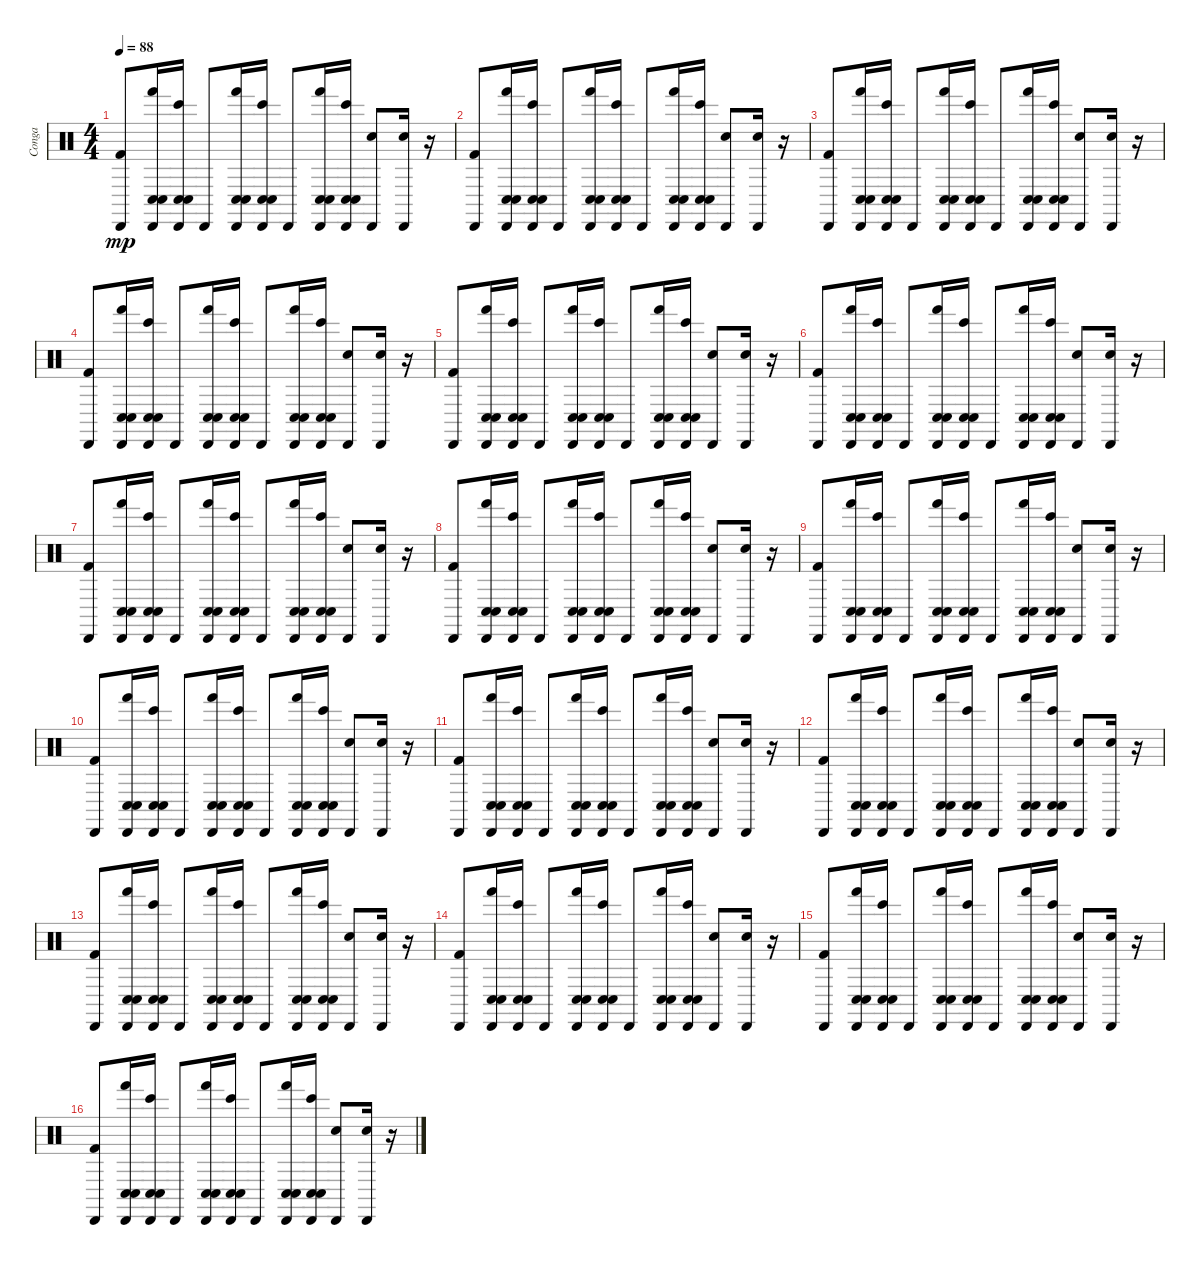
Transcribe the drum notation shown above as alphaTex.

\track ("Conga" "Conga") {instrument percussion}
\staff {score}
\articulation defaults
\ts (4 4)
\tempo 88
\clef neutral
\ks c
("Cabasa (hit)" "Kick (hit) 2").8{dy mp} ("Cabasa (hit)" "Conga low (hit)" "Conga low (hit)" "Hand (hit)").16 ("Cabasa (hit)" "Conga low (hit)" "Conga low (hit)" "Bongo High (hit)").16 "Cabasa (hit)".8 ("Cabasa (hit)" "Conga low (hit)" "Conga low (hit)" "Hand (hit)").16 ("Cabasa (hit)" "Conga low (hit)" "Conga low (hit)" "Bongo High (hit)").16 "Cabasa (hit)".8 ("Cabasa (hit)" "Conga low (hit)" "Conga low (hit)" "Hand (hit)").16 ("Cabasa (hit)" "Conga low (hit)" "Conga low (hit)" "Bongo High (hit)").16 ("Cabasa (hit)" "Electric Snare (hit)").8 ("Cabasa (hit)" "Electric Snare (hit)").16 r.16 |
("Cabasa (hit)" "Kick (hit) 2").8 ("Cabasa (hit)" "Conga low (hit)" "Conga low (hit)" "Hand (hit)").16 ("Cabasa (hit)" "Conga low (hit)" "Conga low (hit)" "Bongo High (hit)").16 "Cabasa (hit)".8 ("Cabasa (hit)" "Conga low (hit)" "Conga low (hit)" "Hand (hit)").16 ("Cabasa (hit)" "Conga low (hit)" "Conga low (hit)" "Bongo High (hit)").16 "Cabasa (hit)".8 ("Cabasa (hit)" "Conga low (hit)" "Conga low (hit)" "Hand (hit)").16 ("Cabasa (hit)" "Conga low (hit)" "Conga low (hit)" "Bongo High (hit)").16 ("Cabasa (hit)" "Electric Snare (hit)").8 ("Cabasa (hit)" "Electric Snare (hit)").16 r.16 |
("Cabasa (hit)" "Kick (hit) 2").8 ("Cabasa (hit)" "Conga low (hit)" "Conga low (hit)" "Hand (hit)").16 ("Cabasa (hit)" "Conga low (hit)" "Conga low (hit)" "Bongo High (hit)").16 "Cabasa (hit)".8 ("Cabasa (hit)" "Conga low (hit)" "Conga low (hit)" "Hand (hit)").16 ("Cabasa (hit)" "Conga low (hit)" "Conga low (hit)" "Bongo High (hit)").16 "Cabasa (hit)".8 ("Cabasa (hit)" "Conga low (hit)" "Conga low (hit)" "Hand (hit)").16 ("Cabasa (hit)" "Conga low (hit)" "Conga low (hit)" "Bongo High (hit)").16 ("Cabasa (hit)" "Electric Snare (hit)").8 ("Cabasa (hit)" "Electric Snare (hit)").16 r.16 |
("Cabasa (hit)" "Kick (hit) 2").8 ("Cabasa (hit)" "Conga low (hit)" "Conga low (hit)" "Hand (hit)").16 ("Cabasa (hit)" "Conga low (hit)" "Conga low (hit)" "Bongo High (hit)").16 "Cabasa (hit)".8 ("Cabasa (hit)" "Conga low (hit)" "Conga low (hit)" "Hand (hit)").16 ("Cabasa (hit)" "Conga low (hit)" "Conga low (hit)" "Bongo High (hit)").16 "Cabasa (hit)".8 ("Cabasa (hit)" "Conga low (hit)" "Conga low (hit)" "Hand (hit)").16 ("Cabasa (hit)" "Conga low (hit)" "Conga low (hit)" "Bongo High (hit)").16 ("Cabasa (hit)" "Electric Snare (hit)").8 ("Cabasa (hit)" "Electric Snare (hit)").16 r.16 |
("Cabasa (hit)" "Kick (hit) 2").8 ("Cabasa (hit)" "Conga low (hit)" "Conga low (hit)" "Hand (hit)").16 ("Cabasa (hit)" "Conga low (hit)" "Conga low (hit)" "Bongo High (hit)").16 "Cabasa (hit)".8 ("Cabasa (hit)" "Conga low (hit)" "Conga low (hit)" "Hand (hit)").16 ("Cabasa (hit)" "Conga low (hit)" "Conga low (hit)" "Bongo High (hit)").16 "Cabasa (hit)".8 ("Cabasa (hit)" "Conga low (hit)" "Conga low (hit)" "Hand (hit)").16 ("Cabasa (hit)" "Conga low (hit)" "Conga low (hit)" "Bongo High (hit)").16 ("Cabasa (hit)" "Electric Snare (hit)").8 ("Cabasa (hit)" "Electric Snare (hit)").16 r.16 |
("Cabasa (hit)" "Kick (hit) 2").8 ("Cabasa (hit)" "Conga low (hit)" "Conga low (hit)" "Hand (hit)").16 ("Cabasa (hit)" "Conga low (hit)" "Conga low (hit)" "Bongo High (hit)").16 "Cabasa (hit)".8 ("Cabasa (hit)" "Conga low (hit)" "Conga low (hit)" "Hand (hit)").16 ("Cabasa (hit)" "Conga low (hit)" "Conga low (hit)" "Bongo High (hit)").16 "Cabasa (hit)".8 ("Cabasa (hit)" "Conga low (hit)" "Conga low (hit)" "Hand (hit)").16 ("Cabasa (hit)" "Conga low (hit)" "Conga low (hit)" "Bongo High (hit)").16 ("Cabasa (hit)" "Electric Snare (hit)").8 ("Cabasa (hit)" "Electric Snare (hit)").16 r.16 |
("Cabasa (hit)" "Kick (hit) 2").8 ("Cabasa (hit)" "Conga low (hit)" "Conga low (hit)" "Hand (hit)").16 ("Cabasa (hit)" "Conga low (hit)" "Conga low (hit)" "Bongo High (hit)").16 "Cabasa (hit)".8 ("Cabasa (hit)" "Conga low (hit)" "Conga low (hit)" "Hand (hit)").16 ("Cabasa (hit)" "Conga low (hit)" "Conga low (hit)" "Bongo High (hit)").16 "Cabasa (hit)".8 ("Cabasa (hit)" "Conga low (hit)" "Conga low (hit)" "Hand (hit)").16 ("Cabasa (hit)" "Conga low (hit)" "Conga low (hit)" "Bongo High (hit)").16 ("Cabasa (hit)" "Electric Snare (hit)").8 ("Cabasa (hit)" "Electric Snare (hit)").16 r.16 |
("Cabasa (hit)" "Kick (hit) 2").8 ("Cabasa (hit)" "Conga low (hit)" "Conga low (hit)" "Hand (hit)").16 ("Cabasa (hit)" "Conga low (hit)" "Conga low (hit)" "Bongo High (hit)").16 "Cabasa (hit)".8 ("Cabasa (hit)" "Conga low (hit)" "Conga low (hit)" "Hand (hit)").16 ("Cabasa (hit)" "Conga low (hit)" "Conga low (hit)" "Bongo High (hit)").16 "Cabasa (hit)".8 ("Cabasa (hit)" "Conga low (hit)" "Conga low (hit)" "Hand (hit)").16 ("Cabasa (hit)" "Conga low (hit)" "Conga low (hit)" "Bongo High (hit)").16 ("Cabasa (hit)" "Electric Snare (hit)").8 ("Cabasa (hit)" "Electric Snare (hit)").16 r.16 |
("Cabasa (hit)" "Kick (hit) 2").8 ("Cabasa (hit)" "Conga low (hit)" "Conga low (hit)" "Hand (hit)").16 ("Cabasa (hit)" "Conga low (hit)" "Conga low (hit)" "Bongo High (hit)").16 "Cabasa (hit)".8 ("Cabasa (hit)" "Conga low (hit)" "Conga low (hit)" "Hand (hit)").16 ("Cabasa (hit)" "Conga low (hit)" "Conga low (hit)" "Bongo High (hit)").16 "Cabasa (hit)".8 ("Cabasa (hit)" "Conga low (hit)" "Conga low (hit)" "Hand (hit)").16 ("Cabasa (hit)" "Conga low (hit)" "Conga low (hit)" "Bongo High (hit)").16 ("Cabasa (hit)" "Electric Snare (hit)").8 ("Cabasa (hit)" "Electric Snare (hit)").16 r.16 |
("Cabasa (hit)" "Kick (hit) 2").8 ("Cabasa (hit)" "Conga low (hit)" "Conga low (hit)" "Hand (hit)").16 ("Cabasa (hit)" "Conga low (hit)" "Conga low (hit)" "Bongo High (hit)").16 "Cabasa (hit)".8 ("Cabasa (hit)" "Conga low (hit)" "Conga low (hit)" "Hand (hit)").16 ("Cabasa (hit)" "Conga low (hit)" "Conga low (hit)" "Bongo High (hit)").16 "Cabasa (hit)".8 ("Cabasa (hit)" "Conga low (hit)" "Conga low (hit)" "Hand (hit)").16 ("Cabasa (hit)" "Conga low (hit)" "Conga low (hit)" "Bongo High (hit)").16 ("Cabasa (hit)" "Electric Snare (hit)").8 ("Cabasa (hit)" "Electric Snare (hit)").16 r.16 |
("Cabasa (hit)" "Kick (hit) 2").8 ("Cabasa (hit)" "Conga low (hit)" "Conga low (hit)" "Hand (hit)").16 ("Cabasa (hit)" "Conga low (hit)" "Conga low (hit)" "Bongo High (hit)").16 "Cabasa (hit)".8 ("Cabasa (hit)" "Conga low (hit)" "Conga low (hit)" "Hand (hit)").16 ("Cabasa (hit)" "Conga low (hit)" "Conga low (hit)" "Bongo High (hit)").16 "Cabasa (hit)".8 ("Cabasa (hit)" "Conga low (hit)" "Conga low (hit)" "Hand (hit)").16 ("Cabasa (hit)" "Conga low (hit)" "Conga low (hit)" "Bongo High (hit)").16 ("Cabasa (hit)" "Electric Snare (hit)").8 ("Cabasa (hit)" "Electric Snare (hit)").16 r.16 |
("Cabasa (hit)" "Kick (hit) 2").8 ("Cabasa (hit)" "Conga low (hit)" "Conga low (hit)" "Hand (hit)").16 ("Cabasa (hit)" "Conga low (hit)" "Conga low (hit)" "Bongo High (hit)").16 "Cabasa (hit)".8 ("Cabasa (hit)" "Conga low (hit)" "Conga low (hit)" "Hand (hit)").16 ("Cabasa (hit)" "Conga low (hit)" "Conga low (hit)" "Bongo High (hit)").16 "Cabasa (hit)".8 ("Cabasa (hit)" "Conga low (hit)" "Conga low (hit)" "Hand (hit)").16 ("Cabasa (hit)" "Conga low (hit)" "Conga low (hit)" "Bongo High (hit)").16 ("Cabasa (hit)" "Electric Snare (hit)").8 ("Cabasa (hit)" "Electric Snare (hit)").16 r.16 |
("Cabasa (hit)" "Kick (hit) 2").8 ("Cabasa (hit)" "Conga low (hit)" "Conga low (hit)" "Hand (hit)").16 ("Cabasa (hit)" "Conga low (hit)" "Conga low (hit)" "Bongo High (hit)").16 "Cabasa (hit)".8 ("Cabasa (hit)" "Conga low (hit)" "Conga low (hit)" "Hand (hit)").16 ("Cabasa (hit)" "Conga low (hit)" "Conga low (hit)" "Bongo High (hit)").16 "Cabasa (hit)".8 ("Cabasa (hit)" "Conga low (hit)" "Conga low (hit)" "Hand (hit)").16 ("Cabasa (hit)" "Conga low (hit)" "Conga low (hit)" "Bongo High (hit)").16 ("Cabasa (hit)" "Electric Snare (hit)").8 ("Cabasa (hit)" "Electric Snare (hit)").16 r.16 |
("Cabasa (hit)" "Kick (hit) 2").8 ("Cabasa (hit)" "Conga low (hit)" "Conga low (hit)" "Hand (hit)").16 ("Cabasa (hit)" "Conga low (hit)" "Conga low (hit)" "Bongo High (hit)").16 "Cabasa (hit)".8 ("Cabasa (hit)" "Conga low (hit)" "Conga low (hit)" "Hand (hit)").16 ("Cabasa (hit)" "Conga low (hit)" "Conga low (hit)" "Bongo High (hit)").16 "Cabasa (hit)".8 ("Cabasa (hit)" "Conga low (hit)" "Conga low (hit)" "Hand (hit)").16 ("Cabasa (hit)" "Conga low (hit)" "Conga low (hit)" "Bongo High (hit)").16 ("Cabasa (hit)" "Electric Snare (hit)").8 ("Cabasa (hit)" "Electric Snare (hit)").16 r.16 |
("Cabasa (hit)" "Kick (hit) 2").8 ("Cabasa (hit)" "Conga low (hit)" "Conga low (hit)" "Hand (hit)").16 ("Cabasa (hit)" "Conga low (hit)" "Conga low (hit)" "Bongo High (hit)").16 "Cabasa (hit)".8 ("Cabasa (hit)" "Conga low (hit)" "Conga low (hit)" "Hand (hit)").16 ("Cabasa (hit)" "Conga low (hit)" "Conga low (hit)" "Bongo High (hit)").16 "Cabasa (hit)".8 ("Cabasa (hit)" "Conga low (hit)" "Conga low (hit)" "Hand (hit)").16 ("Cabasa (hit)" "Conga low (hit)" "Conga low (hit)" "Bongo High (hit)").16 ("Cabasa (hit)" "Electric Snare (hit)").8 ("Cabasa (hit)" "Electric Snare (hit)").16 r.16 |
("Cabasa (hit)" "Kick (hit) 2").8 ("Cabasa (hit)" "Conga low (hit)" "Conga low (hit)" "Hand (hit)").16 ("Cabasa (hit)" "Conga low (hit)" "Conga low (hit)" "Bongo High (hit)").16 "Cabasa (hit)".8 ("Cabasa (hit)" "Conga low (hit)" "Conga low (hit)" "Hand (hit)").16 ("Cabasa (hit)" "Conga low (hit)" "Conga low (hit)" "Bongo High (hit)").16 "Cabasa (hit)".8 ("Cabasa (hit)" "Conga low (hit)" "Conga low (hit)" "Hand (hit)").16 ("Cabasa (hit)" "Conga low (hit)" "Conga low (hit)" "Bongo High (hit)").16 ("Cabasa (hit)" "Electric Snare (hit)").8 ("Cabasa (hit)" "Electric Snare (hit)").16 r.16
